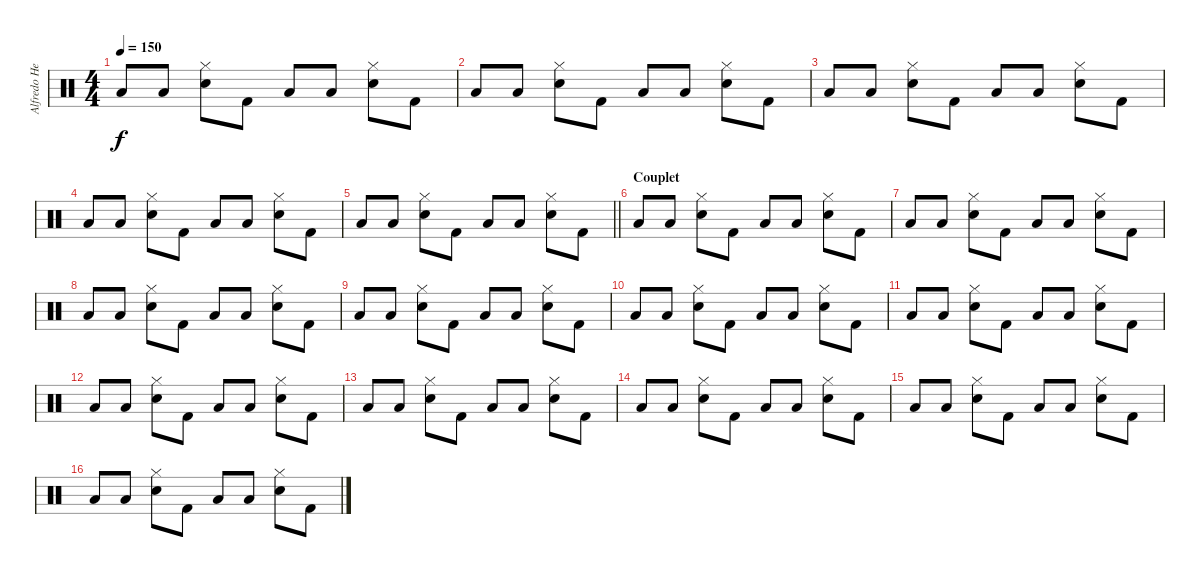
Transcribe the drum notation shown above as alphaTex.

\track ("Alfredo Hernandez" "Alfredo He") {instrument percussion}
\staff {score}
\articulation defaults
\ts (4 4)
\tempo 150
\clef neutral
\ks c "Low Tom (hit)".8{dy f} "Low Tom (hit)".8
("Snare (hit) 2" "Hi-Hat (closed)").8 "Kick (hit) 2".8 "Low Tom (hit)".8 "Low Tom (hit)".8 ("Snare (hit) 2" "Hi-Hat (closed)").8 "Kick (hit) 2".8 |
"Low Tom (hit)".8 "Low Tom (hit)".8 ("Snare (hit) 2" "Hi-Hat (closed)").8 "Kick (hit) 2".8 "Low Tom (hit)".8 "Low Tom (hit)".8 ("Snare (hit) 2" "Hi-Hat (closed)").8 "Kick (hit) 2".8 |
"Low Tom (hit)".8 "Low Tom (hit)".8 ("Snare (hit) 2" "Hi-Hat (closed)").8 "Kick (hit) 2".8 "Low Tom (hit)".8 "Low Tom (hit)".8 ("Snare (hit) 2" "Hi-Hat (closed)").8 "Kick (hit) 2".8 |
"Low Tom (hit)".8 "Low Tom (hit)".8 ("Snare (hit) 2" "Hi-Hat (closed)").8 "Kick (hit) 2".8 "Low Tom (hit)".8 "Low Tom (hit)".8 ("Snare (hit) 2" "Hi-Hat (closed)").8 "Kick (hit) 2".8 |
\barLineRight lightlight "Low Tom (hit)".8 "Low Tom (hit)".8
("Snare (hit) 2" "Hi-Hat (closed)").8 "Kick (hit) 2".8 "Low Tom (hit)".8 "Low Tom (hit)".8 ("Snare (hit) 2" "Hi-Hat (closed)").8 "Kick (hit) 2".8 |
\section ("" "Couplet")
"Low Tom (hit)".8 "Low Tom (hit)".8 ("Snare (hit) 2" "Hi-Hat (closed)").8 "Kick (hit) 2".8 "Low Tom (hit)".8 "Low Tom (hit)".8 ("Snare (hit) 2" "Hi-Hat (closed)").8 "Kick (hit) 2".8 |
"Low Tom (hit)".8 "Low Tom (hit)".8 ("Snare (hit) 2" "Hi-Hat (closed)").8 "Kick (hit) 2".8 "Low Tom (hit)".8 "Low Tom (hit)".8 ("Snare (hit) 2" "Hi-Hat (closed)").8 "Kick (hit) 2".8 |
"Low Tom (hit)".8 "Low Tom (hit)".8 ("Snare (hit) 2" "Hi-Hat (closed)").8 "Kick (hit) 2".8 "Low Tom (hit)".8 "Low Tom (hit)".8 ("Snare (hit) 2" "Hi-Hat (closed)").8 "Kick (hit) 2".8 |
"Low Tom (hit)".8 "Low Tom (hit)".8 ("Snare (hit) 2" "Hi-Hat (closed)").8 "Kick (hit) 2".8 "Low Tom (hit)".8 "Low Tom (hit)".8 ("Snare (hit) 2" "Hi-Hat (closed)").8 "Kick (hit) 2".8 |
"Low Tom (hit)".8 "Low Tom (hit)".8 ("Snare (hit) 2" "Hi-Hat (closed)").8 "Kick (hit) 2".8 "Low Tom (hit)".8 "Low Tom (hit)".8 ("Snare (hit) 2" "Hi-Hat (closed)").8 "Kick (hit) 2".8 |
"Low Tom (hit)".8 "Low Tom (hit)".8 ("Snare (hit) 2" "Hi-Hat (closed)").8 "Kick (hit) 2".8 "Low Tom (hit)".8 "Low Tom (hit)".8 ("Snare (hit) 2" "Hi-Hat (closed)").8 "Kick (hit) 2".8 |
"Low Tom (hit)".8 "Low Tom (hit)".8 ("Snare (hit) 2" "Hi-Hat (closed)").8 "Kick (hit) 2".8 "Low Tom (hit)".8 "Low Tom (hit)".8 ("Snare (hit) 2" "Hi-Hat (closed)").8 "Kick (hit) 2".8 |
"Low Tom (hit)".8 "Low Tom (hit)".8 ("Snare (hit) 2" "Hi-Hat (closed)").8 "Kick (hit) 2".8 "Low Tom (hit)".8 "Low Tom (hit)".8 ("Snare (hit) 2" "Hi-Hat (closed)").8 "Kick (hit) 2".8 |
"Low Tom (hit)".8 "Low Tom (hit)".8 ("Snare (hit) 2" "Hi-Hat (closed)").8 "Kick (hit) 2".8 "Low Tom (hit)".8 "Low Tom (hit)".8 ("Snare (hit) 2" "Hi-Hat (closed)").8 "Kick (hit) 2".8 |
"Low Tom (hit)".8 "Low Tom (hit)".8 ("Snare (hit) 2" "Hi-Hat (closed)").8 "Kick (hit) 2".8 "Low Tom (hit)".8 "Low Tom (hit)".8 ("Snare (hit) 2" "Hi-Hat (closed)").8 "Kick (hit) 2".8 |
"Low Tom (hit)".8 "Low Tom (hit)".8 ("Snare (hit) 2" "Hi-Hat (closed)").8 "Kick (hit) 2".8 "Low Tom (hit)".8 "Low Tom (hit)".8 ("Snare (hit) 2" "Hi-Hat (closed)").8 "Kick (hit) 2".8
